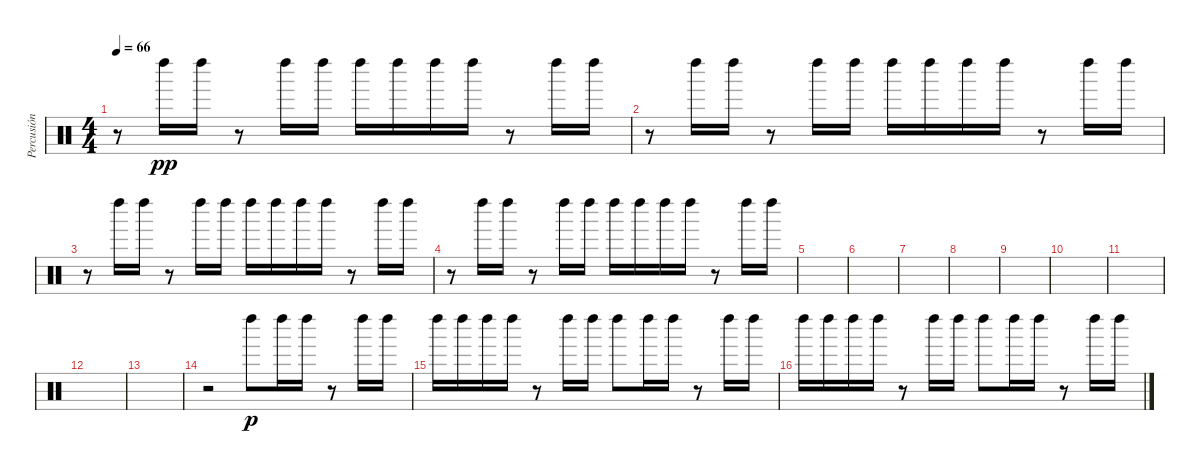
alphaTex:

\track ("Percusión" "Percusión") {instrument percussion}
\staff {score}
\articulation defaults
\ts (4 4)
\tempo 66
\clef neutral
\ks c
r.8{dy pp} "Left Maraca (hit)".16 "Left Maraca (hit)".16 r.8 "Left Maraca (hit)".16 "Left Maraca (hit)".16 "Left Maraca (hit)".16 "Left Maraca (hit)".16 "Left Maraca (hit)".16 "Left Maraca (hit)".16 r.8 "Left Maraca (hit)".16 "Left Maraca (hit)".16 |
r.8 "Left Maraca (hit)".16 "Left Maraca (hit)".16 r.8 "Left Maraca (hit)".16 "Left Maraca (hit)".16 "Left Maraca (hit)".16 "Left Maraca (hit)".16 "Left Maraca (hit)".16 "Left Maraca (hit)".16 r.8 "Left Maraca (hit)".16 "Left Maraca (hit)".16 |
r.8 "Left Maraca (hit)".16 "Left Maraca (hit)".16 r.8 "Left Maraca (hit)".16 "Left Maraca (hit)".16 "Left Maraca (hit)".16 "Left Maraca (hit)".16 "Left Maraca (hit)".16 "Left Maraca (hit)".16 r.8 "Left Maraca (hit)".16 "Left Maraca (hit)".16 |
r.8 "Left Maraca (hit)".16 "Left Maraca (hit)".16 r.8 "Left Maraca (hit)".16 "Left Maraca (hit)".16 "Left Maraca (hit)".16 "Left Maraca (hit)".16 "Left Maraca (hit)".16 "Left Maraca (hit)".16 r.8 "Left Maraca (hit)".16 "Left Maraca (hit)".16 |
|
|
|
|
|
|
|
|
|
r.2 "Left Maraca (hit)".8{dy p} "Left Maraca (hit)".16 "Left Maraca (hit)".16 r.8 "Left Maraca (hit)".16 "Left Maraca (hit)".16 |
"Left Maraca (hit)".16 "Left Maraca (hit)".16 "Left Maraca (hit)".16 "Left Maraca (hit)".16 r.8 "Left Maraca (hit)".16 "Left Maraca (hit)".16 "Left Maraca (hit)".8 "Left Maraca (hit)".16 "Left Maraca (hit)".16 r.8 "Left Maraca (hit)".16 "Left Maraca (hit)".16 |
"Left Maraca (hit)".16 "Left Maraca (hit)".16 "Left Maraca (hit)".16 "Left Maraca (hit)".16 r.8 "Left Maraca (hit)".16 "Left Maraca (hit)".16 "Left Maraca (hit)".8 "Left Maraca (hit)".16 "Left Maraca (hit)".16 r.8 "Left Maraca (hit)".16 "Left Maraca (hit)".16
